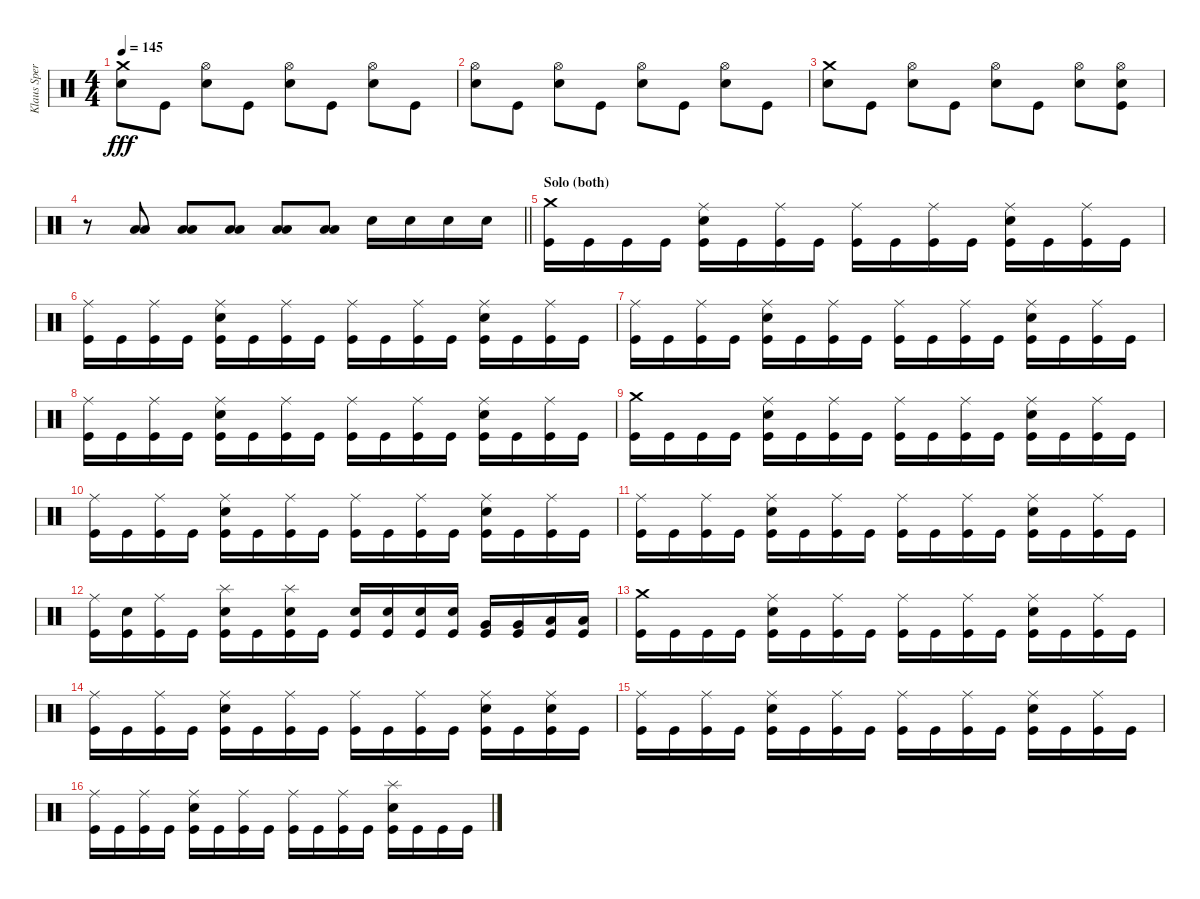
\track ("Klaus Sperling" "Klaus Sper") {instrument percussion}
\staff {score}
\articulation defaults
\ts (4 4)
\tempo 145
\clef neutral
\ks c
("Crash medium (hit)" "Electric Snare (hit)").8{dy fff} "Kick (hit)".8 ("Hi-Hat (open)" "Electric Snare (hit)").8 "Kick (hit)".8 ("Hi-Hat (open)" "Electric Snare (hit)").8 "Kick (hit)".8 ("Hi-Hat (open)" "Electric Snare (hit)").8 "Kick (hit)".8 |
("Hi-Hat (open)" "Electric Snare (hit)").8 "Kick (hit)".8 ("Hi-Hat (open)" "Electric Snare (hit)").8 "Kick (hit)".8 ("Hi-Hat (open)" "Electric Snare (hit)").8 "Kick (hit)".8 ("Hi-Hat (open)" "Electric Snare (hit)").8 "Kick (hit)".8 |
("Crash medium (hit)" "Electric Snare (hit)").8 "Kick (hit)".8 ("Hi-Hat (open)" "Electric Snare (hit)").8 "Kick (hit)".8 ("Hi-Hat (open)" "Electric Snare (hit)").8 "Kick (hit)".8 ("Hi-Hat (open)" "Electric Snare (hit)").8 ("Hi-Hat (open)" "Electric Snare (hit)" "Kick (hit)").8 |
\barLineRight lightlight
r.8 ("Low Tom (hit)" "Low Floor Tom (hit)").8 ("Low Tom (hit)" "Low Floor Tom (hit)").8 ("Low Tom (hit)" "Low Floor Tom (hit)").8 ("Low Tom (hit)" "Low Floor Tom (hit)").8 ("Low Tom (hit)" "Low Floor Tom (hit)").8 "Electric Snare (hit)".16 "Electric Snare (hit)".16 "Electric Snare (hit)".16 "Electric Snare (hit)".16 |
\section ("" "Solo (both)")
("Crash medium (hit)" "Kick (hit)").16 "Kick (hit)".16 "Kick (hit)".16 "Kick (hit)".16 ("Ride (middle)" "Electric Snare (hit)" "Kick (hit)").16 "Kick (hit)".16 ("Ride (middle)" "Kick (hit)").16 "Kick (hit)".16 ("Ride (middle)" "Kick (hit)").16 "Kick (hit)".16 ("Ride (middle)" "Kick (hit)").16 "Kick (hit)".16 ("Ride (middle)" "Electric Snare (hit)" "Kick (hit)").16 "Kick (hit)".16 ("Ride (middle)" "Kick (hit)").16 "Kick (hit)".16 |
("Ride (middle)" "Kick (hit)").16 "Kick (hit)".16 ("Ride (middle)" "Kick (hit)").16 "Kick (hit)".16 ("Ride (middle)" "Electric Snare (hit)" "Kick (hit)").16 "Kick (hit)".16 ("Ride (middle)" "Kick (hit)").16 "Kick (hit)".16 ("Ride (middle)" "Kick (hit)").16 "Kick (hit)".16 ("Ride (middle)" "Kick (hit)").16 "Kick (hit)".16 ("Ride (middle)" "Electric Snare (hit)" "Kick (hit)").16 "Kick (hit)".16 ("Ride (middle)" "Kick (hit)").16 "Kick (hit)".16 |
("Ride (middle)" "Kick (hit)").16 "Kick (hit)".16 ("Ride (middle)" "Kick (hit)").16 "Kick (hit)".16 ("Ride (middle)" "Electric Snare (hit)" "Kick (hit)").16 "Kick (hit)".16 ("Ride (middle)" "Kick (hit)").16 "Kick (hit)".16 ("Ride (middle)" "Kick (hit)").16 "Kick (hit)".16 ("Ride (middle)" "Kick (hit)").16 "Kick (hit)".16 ("Ride (middle)" "Electric Snare (hit)" "Kick (hit)").16 "Kick (hit)".16 ("Ride (middle)" "Kick (hit)").16 "Kick (hit)".16 |
("Ride (middle)" "Kick (hit)").16 "Kick (hit)".16 ("Ride (middle)" "Kick (hit)").16 "Kick (hit)".16 ("Ride (middle)" "Electric Snare (hit)" "Kick (hit)").16 "Kick (hit)".16 ("Ride (middle)" "Kick (hit)").16 "Kick (hit)".16 ("Ride (middle)" "Kick (hit)").16 "Kick (hit)".16 ("Ride (middle)" "Kick (hit)").16 "Kick (hit)".16 ("Ride (middle)" "Electric Snare (hit)" "Kick (hit)").16 "Kick (hit)".16 ("Ride (middle)" "Kick (hit)").16 "Kick (hit)".16 |
("Crash medium (hit)" "Kick (hit)").16 "Kick (hit)".16 "Kick (hit)".16 "Kick (hit)".16 ("Ride (middle)" "Electric Snare (hit)" "Kick (hit)").16 "Kick (hit)".16 ("Ride (middle)" "Kick (hit)").16 "Kick (hit)".16 ("Ride (middle)" "Kick (hit)").16 "Kick (hit)".16 ("Ride (middle)" "Kick (hit)").16 "Kick (hit)".16 ("Ride (middle)" "Electric Snare (hit)" "Kick (hit)").16 "Kick (hit)".16 ("Ride (middle)" "Kick (hit)").16 "Kick (hit)".16 |
("Ride (middle)" "Kick (hit)").16 "Kick (hit)".16 ("Ride (middle)" "Kick (hit)").16 "Kick (hit)".16 ("Ride (middle)" "Electric Snare (hit)" "Kick (hit)").16 "Kick (hit)".16 ("Ride (middle)" "Kick (hit)").16 "Kick (hit)".16 ("Ride (middle)" "Kick (hit)").16 "Kick (hit)".16 ("Ride (middle)" "Kick (hit)").16 "Kick (hit)".16 ("Ride (middle)" "Electric Snare (hit)" "Kick (hit)").16 "Kick (hit)".16 ("Ride (middle)" "Kick (hit)").16 "Kick (hit)".16 |
("Ride (middle)" "Kick (hit)").16 "Kick (hit)".16 ("Ride (middle)" "Kick (hit)").16 "Kick (hit)".16 ("Ride (middle)" "Electric Snare (hit)" "Kick (hit)").16 "Kick (hit)".16 ("Ride (middle)" "Kick (hit)").16 "Kick (hit)".16 ("Ride (middle)" "Kick (hit)").16 "Kick (hit)".16 ("Ride (middle)" "Kick (hit)").16 "Kick (hit)".16 ("Ride (middle)" "Electric Snare (hit)" "Kick (hit)").16 "Kick (hit)".16 ("Ride (middle)" "Kick (hit)").16 "Kick (hit)".16 |
("Ride (middle)" "Kick (hit)").16 ("Electric Snare (hit)" "Kick (hit)").16 ("Ride (middle)" "Kick (hit)").16 "Kick (hit)".16 ("Splash (hit)" "Electric Snare (hit)" "Kick (hit)").16 "Kick (hit)".16 ("Splash (hit)" "Electric Snare (hit)" "Kick (hit)").16 "Kick (hit)".16 ("Electric Snare (hit)" "Kick (hit)").16 ("Electric Snare (hit)" "Kick (hit)").16 ("Electric Snare (hit)" "Kick (hit)").16 ("Electric Snare (hit)" "Kick (hit)").16 ("Very Low Tom (hit)" "Kick (hit)").16 ("Very Low Tom (hit)" "Kick (hit)").16 ("Low Floor Tom (hit)" "Kick (hit)").16 ("Low Floor Tom (hit)" "Kick (hit)").16 |
("Crash medium (hit)" "Kick (hit)").16 "Kick (hit)".16 "Kick (hit)".16 "Kick (hit)".16 ("Ride (middle)" "Electric Snare (hit)" "Kick (hit)").16 "Kick (hit)".16 ("Ride (middle)" "Kick (hit)").16 "Kick (hit)".16 ("Ride (middle)" "Kick (hit)").16 "Kick (hit)".16 ("Ride (middle)" "Kick (hit)").16 "Kick (hit)".16 ("Ride (middle)" "Electric Snare (hit)" "Kick (hit)").16 "Kick (hit)".16 ("Ride (middle)" "Kick (hit)").16 "Kick (hit)".16 |
("Ride (middle)" "Kick (hit)").16 "Kick (hit)".16 ("Ride (middle)" "Kick (hit)").16 "Kick (hit)".16 ("Ride (middle)" "Electric Snare (hit)" "Kick (hit)").16 "Kick (hit)".16 ("Ride (middle)" "Kick (hit)").16 "Kick (hit)".16 ("Ride (middle)" "Kick (hit)").16 "Kick (hit)".16 ("Ride (middle)" "Kick (hit)").16 "Kick (hit)".16 ("Ride (middle)" "Electric Snare (hit)" "Kick (hit)").16 "Kick (hit)".16 ("Ride (middle)" "Electric Snare (hit)" "Kick (hit)").16 "Kick (hit)".16 |
("Ride (middle)" "Kick (hit)").16 "Kick (hit)".16 ("Ride (middle)" "Kick (hit)").16 "Kick (hit)".16 ("Ride (middle)" "Electric Snare (hit)" "Kick (hit)").16 "Kick (hit)".16 ("Ride (middle)" "Kick (hit)").16 "Kick (hit)".16 ("Ride (middle)" "Kick (hit)").16 "Kick (hit)".16 ("Ride (middle)" "Kick (hit)").16 "Kick (hit)".16 ("Ride (middle)" "Electric Snare (hit)" "Kick (hit)").16 "Kick (hit)".16 ("Ride (middle)" "Kick (hit)").16 "Kick (hit)".16 |
("Ride (middle)" "Kick (hit)").16 "Kick (hit)".16 ("Ride (middle)" "Kick (hit)").16 "Kick (hit)".16 ("Ride (middle)" "Electric Snare (hit)" "Kick (hit)").16 "Kick (hit)".16 ("Ride (middle)" "Kick (hit)").16 "Kick (hit)".16 ("Ride (middle)" "Kick (hit)").16 "Kick (hit)".16 ("Ride (middle)" "Kick (hit)").16 "Kick (hit)".16 ("Splash (hit)" "Electric Snare (hit)" "Kick (hit)").16 "Kick (hit)".16 "Kick (hit)".16 "Kick (hit)".16
